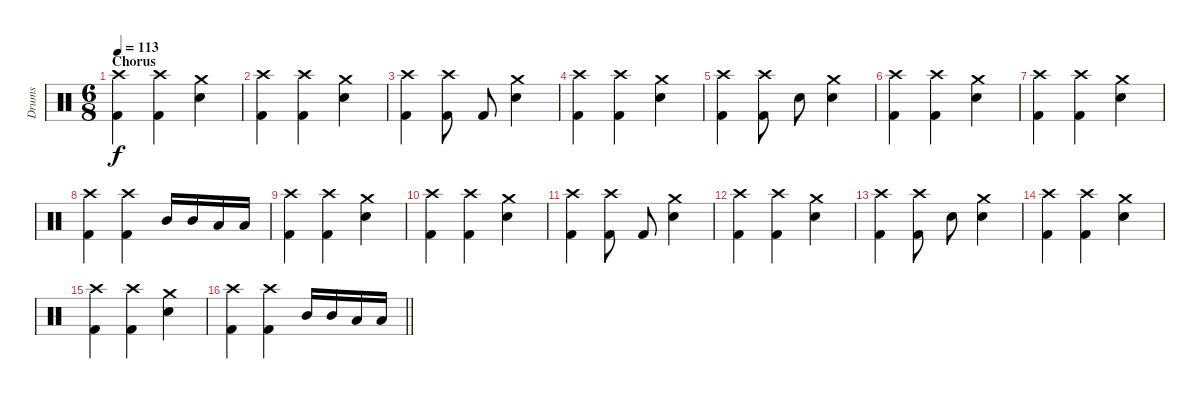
\track ("Drums" "Drums") {instrument percussion}
\staff {score}
\articulation defaults
\ts (6 8)
\section ("" "Chorus")
\tempo 113
\clef neutral
\ks c
("Crash high (hit)" "Kick (hit) 2").4{dy f} ("Crash high (hit)" "Kick (hit) 2").4 ("Crash medium (hit)" "Electric Snare (hit)").4 |
("Crash high (hit)" "Kick (hit) 2").4 ("Crash high (hit)" "Kick (hit) 2").4 ("Crash medium (hit)" "Electric Snare (hit)").4 |
("Crash high (hit)" "Kick (hit) 2").4 ("Crash high (hit)" "Kick (hit) 2").8 "Kick (hit) 2".8 ("Crash medium (hit)" "Electric Snare (hit)").4 |
("Crash high (hit)" "Kick (hit) 2").4 ("Crash high (hit)" "Kick (hit) 2").4 ("Crash medium (hit)" "Electric Snare (hit)").4 |
("Crash high (hit)" "Kick (hit) 2").4 ("Crash high (hit)" "Kick (hit) 2").8 "Electric Snare (hit)".8 ("Crash medium (hit)" "Electric Snare (hit)").4 |
("Crash high (hit)" "Kick (hit) 2").4 ("Crash high (hit)" "Kick (hit) 2").4 ("Crash medium (hit)" "Electric Snare (hit)").4 |
("Crash high (hit)" "Kick (hit) 2").4 ("Crash high (hit)" "Kick (hit) 2").4 ("Crash medium (hit)" "Electric Snare (hit)").4 |
("Crash high (hit)" "Kick (hit) 2").4 ("Crash high (hit)" "Kick (hit) 2").4 "Mid Tom (hit)".16 "Mid Tom (hit)".16 "Low Tom (hit)".16 "Low Tom (hit)".16 |
("Crash high (hit)" "Kick (hit) 2").4 ("Crash high (hit)" "Kick (hit) 2").4 ("Crash medium (hit)" "Electric Snare (hit)").4 |
("Crash high (hit)" "Kick (hit) 2").4 ("Crash high (hit)" "Kick (hit) 2").4 ("Crash medium (hit)" "Electric Snare (hit)").4 |
("Crash high (hit)" "Kick (hit) 2").4 ("Crash high (hit)" "Kick (hit) 2").8 "Kick (hit) 2".8 ("Crash medium (hit)" "Electric Snare (hit)").4 |
("Crash high (hit)" "Kick (hit) 2").4 ("Crash high (hit)" "Kick (hit) 2").4 ("Crash medium (hit)" "Electric Snare (hit)").4 |
("Crash high (hit)" "Kick (hit) 2").4 ("Crash high (hit)" "Kick (hit) 2").8 "Electric Snare (hit)".8 ("Crash medium (hit)" "Electric Snare (hit)").4 |
("Crash high (hit)" "Kick (hit) 2").4 ("Crash high (hit)" "Kick (hit) 2").4 ("Crash medium (hit)" "Electric Snare (hit)").4 |
("Crash high (hit)" "Kick (hit) 2").4 ("Crash high (hit)" "Kick (hit) 2").4 ("Crash medium (hit)" "Electric Snare (hit)").4 |
\barLineRight lightlight
("Crash high (hit)" "Kick (hit) 2").4 ("Crash high (hit)" "Kick (hit) 2").4 "Mid Tom (hit)".16 "Mid Tom (hit)".16 "Low Tom (hit)".16 "Low Tom (hit)".16
